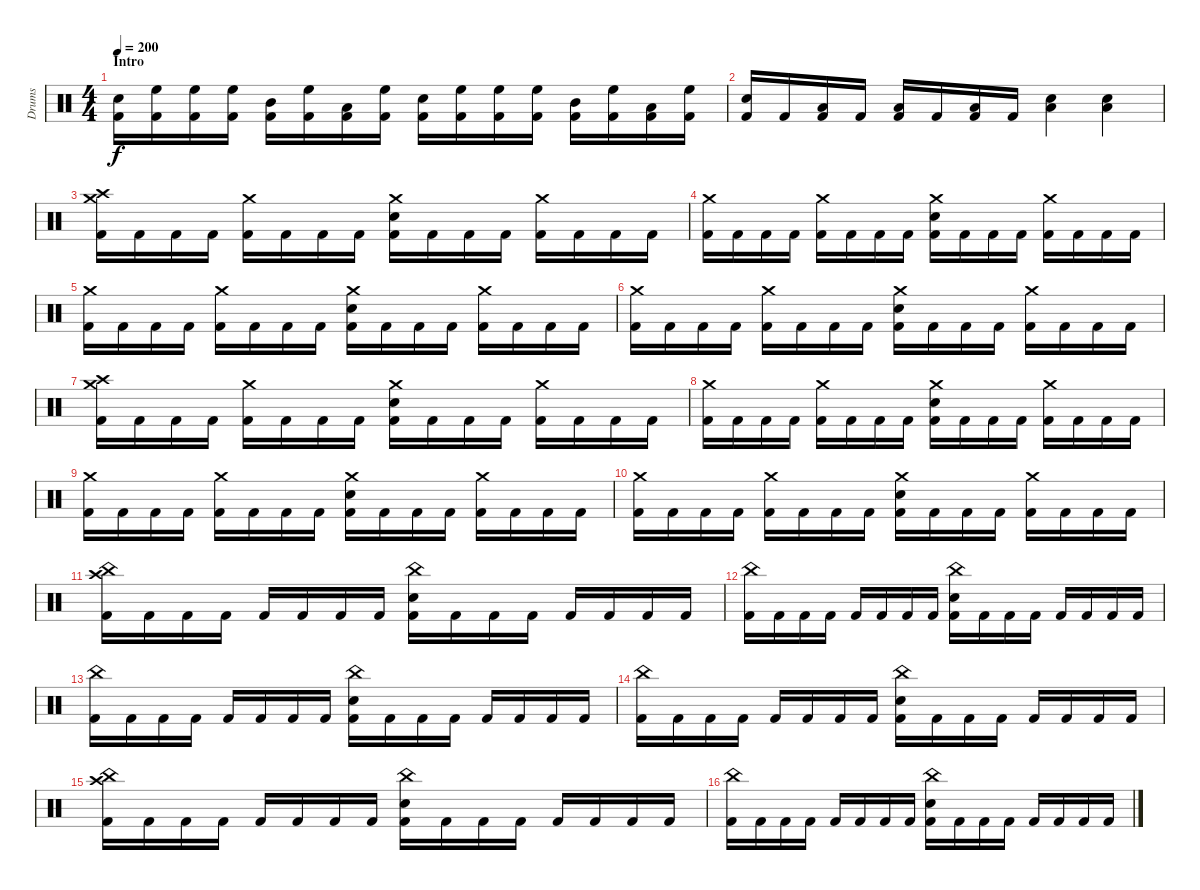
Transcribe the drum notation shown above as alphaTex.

\track ("Drums" "Drums") {instrument percussion}
\staff {score}
\articulation defaults
\ts (4 4)
\section ("" "Intro")
\tempo 200
\clef neutral
\ks c
("Electric Snare (hit)" "Kick (hit) 2").16{dy f} ("High Floor Tom (hit)" "Kick (hit) 2").16 ("High Floor Tom (hit)" "Kick (hit) 2").16 ("High Floor Tom (hit)" "Kick (hit) 2").16 ("Mid Tom (hit)" "Kick (hit) 2").16 ("High Floor Tom (hit)" "Kick (hit) 2").16 ("Low Tom (hit)" "Kick (hit) 2").16 ("High Floor Tom (hit)" "Kick (hit) 2").16 ("Electric Snare (hit)" "Kick (hit) 2").16 ("High Floor Tom (hit)" "Kick (hit) 2").16 ("High Floor Tom (hit)" "Kick (hit) 2").16 ("High Floor Tom (hit)" "Kick (hit) 2").16 ("Mid Tom (hit)" "Kick (hit) 2").16 ("High Floor Tom (hit)" "Kick (hit) 2").16 ("Low Tom (hit)" "Kick (hit) 2").16 ("High Floor Tom (hit)" "Kick (hit) 2").16 |
("Electric Snare (hit)" "Kick (hit) 2").16 "Kick (hit) 2".16 ("Low Tom (hit)" "Kick (hit) 2").16 "Kick (hit) 2".16 ("Low Tom (hit)" "Kick (hit) 2").16 "Kick (hit) 2".16 ("Low Tom (hit)" "Kick (hit) 2").16 "Kick (hit) 2".16 ("Electric Snare (hit)" "Low Tom (hit)").4 ("Electric Snare (hit)" "Low Tom (hit)").4 |
("Crash medium (hit)" "Crash high (hit)" "Kick (hit) 2").16 "Kick (hit) 2".16 "Kick (hit) 2".16 "Kick (hit) 2".16 ("Crash medium (hit)" "Kick (hit) 2").16 "Kick (hit) 2".16 "Kick (hit) 2".16 "Kick (hit) 2".16 ("Crash medium (hit)" "Electric Snare (hit)" "Kick (hit) 2").16 "Kick (hit) 2".16 "Kick (hit) 2".16 "Kick (hit) 2".16 ("Crash medium (hit)" "Kick (hit) 2").16 "Kick (hit) 2".16 "Kick (hit) 2".16 "Kick (hit) 2".16 |
("Crash medium (hit)" "Kick (hit) 2").16 "Kick (hit) 2".16 "Kick (hit) 2".16 "Kick (hit) 2".16 ("Crash medium (hit)" "Kick (hit) 2").16 "Kick (hit) 2".16 "Kick (hit) 2".16 "Kick (hit) 2".16 ("Crash medium (hit)" "Electric Snare (hit)" "Kick (hit) 2").16 "Kick (hit) 2".16 "Kick (hit) 2".16 "Kick (hit) 2".16 ("Crash medium (hit)" "Kick (hit) 2").16 "Kick (hit) 2".16 "Kick (hit) 2".16 "Kick (hit) 2".16 |
("Crash medium (hit)" "Kick (hit) 2").16 "Kick (hit) 2".16 "Kick (hit) 2".16 "Kick (hit) 2".16 ("Crash medium (hit)" "Kick (hit) 2").16 "Kick (hit) 2".16 "Kick (hit) 2".16 "Kick (hit) 2".16 ("Crash medium (hit)" "Electric Snare (hit)" "Kick (hit) 2").16 "Kick (hit) 2".16 "Kick (hit) 2".16 "Kick (hit) 2".16 ("Crash medium (hit)" "Kick (hit) 2").16 "Kick (hit) 2".16 "Kick (hit) 2".16 "Kick (hit) 2".16 |
("Crash medium (hit)" "Kick (hit) 2").16 "Kick (hit) 2".16 "Kick (hit) 2".16 "Kick (hit) 2".16 ("Crash medium (hit)" "Kick (hit) 2").16 "Kick (hit) 2".16 "Kick (hit) 2".16 "Kick (hit) 2".16 ("Crash medium (hit)" "Electric Snare (hit)" "Kick (hit) 2").16 "Kick (hit) 2".16 "Kick (hit) 2".16 "Kick (hit) 2".16 ("Crash medium (hit)" "Kick (hit) 2").16 "Kick (hit) 2".16 "Kick (hit) 2".16 "Kick (hit) 2".16 |
("Crash medium (hit)" "Crash high (hit)" "Kick (hit) 2").16 "Kick (hit) 2".16 "Kick (hit) 2".16 "Kick (hit) 2".16 ("Crash medium (hit)" "Kick (hit) 2").16 "Kick (hit) 2".16 "Kick (hit) 2".16 "Kick (hit) 2".16 ("Crash medium (hit)" "Electric Snare (hit)" "Kick (hit) 2").16 "Kick (hit) 2".16 "Kick (hit) 2".16 "Kick (hit) 2".16 ("Crash medium (hit)" "Kick (hit) 2").16 "Kick (hit) 2".16 "Kick (hit) 2".16 "Kick (hit) 2".16 |
("Crash medium (hit)" "Kick (hit) 2").16 "Kick (hit) 2".16 "Kick (hit) 2".16 "Kick (hit) 2".16 ("Crash medium (hit)" "Kick (hit) 2").16 "Kick (hit) 2".16 "Kick (hit) 2".16 "Kick (hit) 2".16 ("Crash medium (hit)" "Electric Snare (hit)" "Kick (hit) 2").16 "Kick (hit) 2".16 "Kick (hit) 2".16 "Kick (hit) 2".16 ("Crash medium (hit)" "Kick (hit) 2").16 "Kick (hit) 2".16 "Kick (hit) 2".16 "Kick (hit) 2".16 |
("Crash medium (hit)" "Kick (hit) 2").16 "Kick (hit) 2".16 "Kick (hit) 2".16 "Kick (hit) 2".16 ("Crash medium (hit)" "Kick (hit) 2").16 "Kick (hit) 2".16 "Kick (hit) 2".16 "Kick (hit) 2".16 ("Crash medium (hit)" "Electric Snare (hit)" "Kick (hit) 2").16 "Kick (hit) 2".16 "Kick (hit) 2".16 "Kick (hit) 2".16 ("Crash medium (hit)" "Kick (hit) 2").16 "Kick (hit) 2".16 "Kick (hit) 2".16 "Kick (hit) 2".16 |
("Crash medium (hit)" "Kick (hit) 2").16 "Kick (hit) 2".16 "Kick (hit) 2".16 "Kick (hit) 2".16 ("Crash medium (hit)" "Kick (hit) 2").16 "Kick (hit) 2".16 "Kick (hit) 2".16 "Kick (hit) 2".16 ("Crash medium (hit)" "Electric Snare (hit)" "Kick (hit) 2").16 "Kick (hit) 2".16 "Kick (hit) 2".16 "Kick (hit) 2".16 ("Crash medium (hit)" "Kick (hit) 2").16 "Kick (hit) 2".16 "Kick (hit) 2".16 "Kick (hit) 2".16 |
("China (hit)" "Crash high (hit)" "Kick (hit) 2").16 "Kick (hit) 2".16 "Kick (hit) 2".16 "Kick (hit) 2".16 "Kick (hit) 2".16 "Kick (hit) 2".16 "Kick (hit) 2".16 "Kick (hit) 2".16 ("China (hit)" "Electric Snare (hit)" "Kick (hit) 2").16 "Kick (hit) 2".16 "Kick (hit) 2".16 "Kick (hit) 2".16 "Kick (hit) 2".16 "Kick (hit) 2".16 "Kick (hit) 2".16 "Kick (hit) 2".16 |
("China (hit)" "Kick (hit) 2").16 "Kick (hit) 2".16 "Kick (hit) 2".16 "Kick (hit) 2".16 "Kick (hit) 2".16 "Kick (hit) 2".16 "Kick (hit) 2".16 "Kick (hit) 2".16 ("China (hit)" "Electric Snare (hit)" "Kick (hit) 2").16 "Kick (hit) 2".16 "Kick (hit) 2".16 "Kick (hit) 2".16 "Kick (hit) 2".16 "Kick (hit) 2".16 "Kick (hit) 2".16 "Kick (hit) 2".16 |
("China (hit)" "Kick (hit) 2").16 "Kick (hit) 2".16 "Kick (hit) 2".16 "Kick (hit) 2".16 "Kick (hit) 2".16 "Kick (hit) 2".16 "Kick (hit) 2".16 "Kick (hit) 2".16 ("China (hit)" "Electric Snare (hit)" "Kick (hit) 2").16 "Kick (hit) 2".16 "Kick (hit) 2".16 "Kick (hit) 2".16 "Kick (hit) 2".16 "Kick (hit) 2".16 "Kick (hit) 2".16 "Kick (hit) 2".16 |
("China (hit)" "Kick (hit) 2").16 "Kick (hit) 2".16 "Kick (hit) 2".16 "Kick (hit) 2".16 "Kick (hit) 2".16 "Kick (hit) 2".16 "Kick (hit) 2".16 "Kick (hit) 2".16 ("China (hit)" "Electric Snare (hit)" "Kick (hit) 2").16 "Kick (hit) 2".16 "Kick (hit) 2".16 "Kick (hit) 2".16 "Kick (hit) 2".16 "Kick (hit) 2".16 "Kick (hit) 2".16 "Kick (hit) 2".16 |
("China (hit)" "Crash high (hit)" "Kick (hit) 2").16 "Kick (hit) 2".16 "Kick (hit) 2".16 "Kick (hit) 2".16 "Kick (hit) 2".16 "Kick (hit) 2".16 "Kick (hit) 2".16 "Kick (hit) 2".16 ("China (hit)" "Electric Snare (hit)" "Kick (hit) 2").16 "Kick (hit) 2".16 "Kick (hit) 2".16 "Kick (hit) 2".16 "Kick (hit) 2".16 "Kick (hit) 2".16 "Kick (hit) 2".16 "Kick (hit) 2".16 |
("China (hit)" "Kick (hit) 2").16 "Kick (hit) 2".16 "Kick (hit) 2".16 "Kick (hit) 2".16 "Kick (hit) 2".16 "Kick (hit) 2".16 "Kick (hit) 2".16 "Kick (hit) 2".16 ("China (hit)" "Electric Snare (hit)" "Kick (hit) 2").16 "Kick (hit) 2".16 "Kick (hit) 2".16 "Kick (hit) 2".16 "Kick (hit) 2".16 "Kick (hit) 2".16 "Kick (hit) 2".16 "Kick (hit) 2".16
